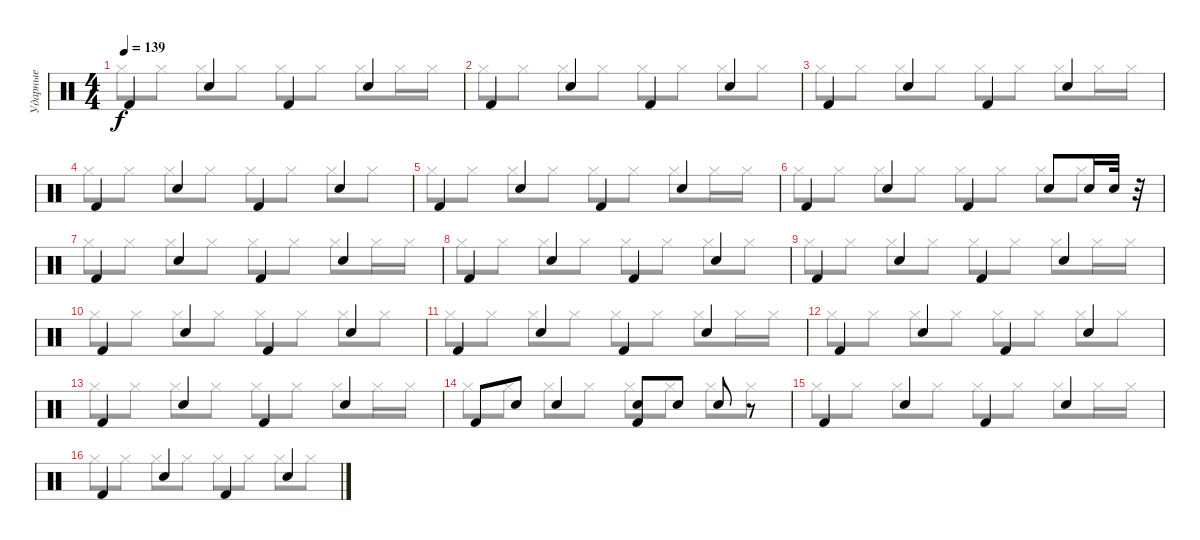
\track ("Ударные" "Ударные") {instrument percussion}
\staff {score}
\articulation defaults
\voice
\ts (4 4)
\tempo 139
\clef neutral
\ks c "Kick (hit) 2".4{dy f} "Snare (hit) 2".4 "Kick (hit) 2".4 "Snare (hit) 2".4
|
"Kick (hit) 2".4 "Snare (hit) 2".4 "Kick (hit) 2".4 "Snare (hit) 2".4 |
"Kick (hit) 2".4 "Snare (hit) 2".4 "Kick (hit) 2".4 "Snare (hit) 2".4 |
"Kick (hit) 2".4 "Snare (hit) 2".4 "Kick (hit) 2".4 "Snare (hit) 2".4 |
"Kick (hit) 2".4 "Snare (hit) 2".4 "Kick (hit) 2".4 "Snare (hit) 2".4 |
"Kick (hit) 2".4 "Snare (hit) 2".4 "Kick (hit) 2".4 "Snare (hit) 2".8 "Snare (hit) 2".16 "Snare (hit) 2".32 r.32 |
"Kick (hit) 2".4 "Snare (hit) 2".4 "Kick (hit) 2".4 "Snare (hit) 2".4 |
"Kick (hit) 2".4 "Snare (hit) 2".4 "Kick (hit) 2".4 "Snare (hit) 2".4 |
"Kick (hit) 2".4 "Snare (hit) 2".4 "Kick (hit) 2".4 "Snare (hit) 2".4 |
"Kick (hit) 2".4 "Snare (hit) 2".4 "Kick (hit) 2".4 "Snare (hit) 2".4 |
"Kick (hit) 2".4 "Snare (hit) 2".4 "Kick (hit) 2".4 "Snare (hit) 2".4 |
"Kick (hit) 2".4 "Snare (hit) 2".4 "Kick (hit) 2".4 "Snare (hit) 2".4 |
"Kick (hit) 2".4 "Snare (hit) 2".4 "Kick (hit) 2".4 "Snare (hit) 2".4 |
"Kick (hit) 2".8 "Snare (hit) 2".8 "Snare (hit) 2".4 ("Kick (hit) 2" "Snare (hit) 2").8 "Snare (hit) 2".8 "Snare (hit) 2".8 r.8 |
"Kick (hit) 2".4 "Snare (hit) 2".4 "Kick (hit) 2".4 "Snare (hit) 2".4 |
"Kick (hit) 2".4 "Snare (hit) 2".4 "Kick (hit) 2".4 "Snare (hit) 2".4
\voice
\clef neutral
\ottava regular
\simile none
\ks c "Hi-Hat (closed)".8{dy f} "Hi-Hat (closed)".8 "Hi-Hat (closed)".8 "Hi-Hat (closed)".8 "Hi-Hat (closed)".8 "Hi-Hat (closed)".8 "Hi-Hat (closed)".8 "Hi-Hat (closed)".16 "Hi-Hat (closed)".16
|
"Hi-Hat (closed)".8 "Hi-Hat (closed)".8 "Hi-Hat (closed)".8 "Hi-Hat (closed)".8 "Hi-Hat (closed)".8 "Hi-Hat (closed)".8 "Hi-Hat (closed)".8 "Hi-Hat (closed)".8 |
"Hi-Hat (closed)".8 "Hi-Hat (closed)".8 "Hi-Hat (closed)".8 "Hi-Hat (closed)".8 "Hi-Hat (closed)".8 "Hi-Hat (closed)".8 "Hi-Hat (closed)".8 "Hi-Hat (closed)".16 "Hi-Hat (closed)".16 |
"Hi-Hat (closed)".8 "Hi-Hat (closed)".8 "Hi-Hat (closed)".8 "Hi-Hat (closed)".8 "Hi-Hat (closed)".8 "Hi-Hat (closed)".8 "Hi-Hat (closed)".8 "Hi-Hat (closed)".8 |
"Hi-Hat (closed)".8 "Hi-Hat (closed)".8 "Hi-Hat (closed)".8 "Hi-Hat (closed)".8 "Hi-Hat (closed)".8 "Hi-Hat (closed)".8 "Hi-Hat (closed)".8 "Hi-Hat (closed)".16 "Hi-Hat (closed)".16 |
"Hi-Hat (closed)".8 "Hi-Hat (closed)".8 "Hi-Hat (closed)".8 "Hi-Hat (closed)".8 "Hi-Hat (closed)".8 "Hi-Hat (closed)".8 "Hi-Hat (closed)".8 "Hi-Hat (closed)".8 |
"Hi-Hat (closed)".8 "Hi-Hat (closed)".8 "Hi-Hat (closed)".8 "Hi-Hat (closed)".8 "Hi-Hat (closed)".8 "Hi-Hat (closed)".8 "Hi-Hat (closed)".8 "Hi-Hat (closed)".16 "Hi-Hat (closed)".16 |
"Hi-Hat (closed)".8 "Hi-Hat (closed)".8 "Hi-Hat (closed)".8 "Hi-Hat (closed)".8 "Hi-Hat (closed)".8 "Hi-Hat (closed)".8 "Hi-Hat (closed)".8 "Hi-Hat (closed)".8 |
"Hi-Hat (closed)".8 "Hi-Hat (closed)".8 "Hi-Hat (closed)".8 "Hi-Hat (closed)".8 "Hi-Hat (closed)".8 "Hi-Hat (closed)".8 "Hi-Hat (closed)".8 "Hi-Hat (closed)".16 "Hi-Hat (closed)".16 |
"Hi-Hat (closed)".8 "Hi-Hat (closed)".8 "Hi-Hat (closed)".8 "Hi-Hat (closed)".8 "Hi-Hat (closed)".8 "Hi-Hat (closed)".8 "Hi-Hat (closed)".8 "Hi-Hat (closed)".8 |
"Hi-Hat (closed)".8 "Hi-Hat (closed)".8 "Hi-Hat (closed)".8 "Hi-Hat (closed)".8 "Hi-Hat (closed)".8 "Hi-Hat (closed)".8 "Hi-Hat (closed)".8 "Hi-Hat (closed)".16 "Hi-Hat (closed)".16 |
"Hi-Hat (closed)".8 "Hi-Hat (closed)".8 "Hi-Hat (closed)".8 "Hi-Hat (closed)".8 "Hi-Hat (closed)".8 "Hi-Hat (closed)".8 "Hi-Hat (closed)".8 "Hi-Hat (closed)".8 |
"Hi-Hat (closed)".8 "Hi-Hat (closed)".8 "Hi-Hat (closed)".8 "Hi-Hat (closed)".8 "Hi-Hat (closed)".8 "Hi-Hat (closed)".8 "Hi-Hat (closed)".8 "Hi-Hat (closed)".16 "Hi-Hat (closed)".16 |
"Hi-Hat (closed)".8 "Hi-Hat (closed)".8 "Hi-Hat (closed)".8 "Hi-Hat (closed)".8 "Hi-Hat (closed)".8 "Hi-Hat (closed)".8 "Hi-Hat (closed)".8 "Hi-Hat (closed)".8 |
"Hi-Hat (closed)".8 "Hi-Hat (closed)".8 "Hi-Hat (closed)".8 "Hi-Hat (closed)".8 "Hi-Hat (closed)".8 "Hi-Hat (closed)".8 "Hi-Hat (closed)".8 "Hi-Hat (closed)".16 "Hi-Hat (closed)".16 |
"Hi-Hat (closed)".8 "Hi-Hat (closed)".8 "Hi-Hat (closed)".8 "Hi-Hat (closed)".8 "Hi-Hat (closed)".8 "Hi-Hat (closed)".8 "Hi-Hat (closed)".8 "Hi-Hat (closed)".8
